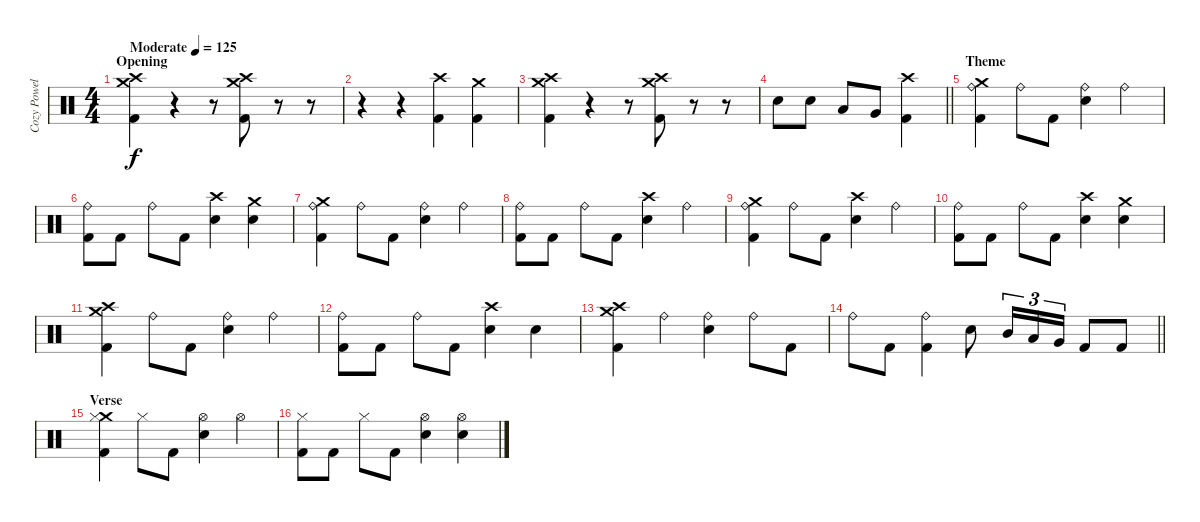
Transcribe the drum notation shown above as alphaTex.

\track ("Cozy Powell " "Cozy Powel") {instrument percussion}
\staff {score}
\articulation defaults
\ts (4 4)
\section ("" "Opening")
\tempo (125 "Moderate")
\clef neutral
\ks c
("Crash high (hit)" "Crash medium (hit)" "Kick (hit) 2").4{dy f} r.4 r.8 ("Crash medium (hit)" "Crash high (hit)" "Kick (hit) 2").8 r.8 r.8 |
r.4 r.4 ("Crash high (hit)" "Kick (hit) 2").4 ("Crash medium (hit)" "Kick (hit) 2").4 |
("Crash high (hit)" "Crash medium (hit)" "Kick (hit) 2").4 r.4 r.8 ("Crash medium (hit)" "Crash high (hit)" "Kick (hit) 2").8 r.8 r.8 |
\barLineRight lightlight "Snare (hit) 2".8 "Snare (hit) 2".8 "Low Tom (hit)".8 "Very Low Tom (hit)".8
("Crash high (hit)" "Kick (hit) 2").4 |
\section ("" "Theme")
("Crash medium (hit)" "Ride (bell)" "Kick (hit) 2").4 "Ride (bell)".8 "Kick (hit) 2".8 ("Ride (bell)" "Snare (hit) 2").4 "Ride (bell)".4 |
("Ride (bell)" "Kick (hit) 2").8 "Kick (hit) 2".8 "Ride (bell)".8 "Kick (hit) 2".8 ("Crash high (hit)" "Snare (hit) 2").4 ("Crash medium (hit)" "Snare (hit) 2").4 |
("Crash medium (hit)" "Ride (bell)" "Kick (hit) 2").4 "Ride (bell)".8 "Kick (hit) 2".8 ("Ride (bell)" "Snare (hit) 2").4 "Ride (bell)".4 |
("Ride (bell)" "Kick (hit) 2").8 "Kick (hit) 2".8 "Ride (bell)".8 "Kick (hit) 2".8 ("Crash high (hit)" "Snare (hit) 2").4 "Ride (bell)".4 |
("Crash medium (hit)" "Ride (bell)" "Kick (hit) 2").4 "Ride (bell)".8 "Kick (hit) 2".8 ("Crash high (hit)" "Snare (hit) 2").4 "Ride (bell)".4 |
("Ride (bell)" "Kick (hit) 2").8 "Kick (hit) 2".8 "Ride (bell)".8 "Kick (hit) 2".8 ("Crash high (hit)" "Snare (hit) 2").4 ("Crash medium (hit)" "Snare (hit) 2").4 |
("Crash medium (hit)" "Crash high (hit)" "Kick (hit) 2").4 "Ride (bell)".8 "Kick (hit) 2".8 ("Ride (bell)" "Snare (hit) 2").4 "Ride (bell)".4 |
("Ride (bell)" "Kick (hit) 2").8 "Kick (hit) 2".8 "Ride (bell)".8 "Kick (hit) 2".8 ("Crash high (hit)" "Snare (hit) 2").4 "Snare (hit) 2".4 |
("Crash medium (hit)" "Crash high (hit)" "Kick (hit) 2").4 "Ride (bell)".4 ("Ride (bell)" "Snare (hit) 2").4 "Ride (bell)".8 "Kick (hit) 2".8 |
\barLineRight lightlight "Ride (bell)".8 "Kick (hit) 2".8
("Ride (bell)" "Kick (hit) 2").4 "Snare (hit) 2".8 "Mid Tom (hit)".16{tu (3 2)} "Low Tom (hit)".16{tu (3 2)} "Very Low Tom (hit)".16{tu (3 2)} "Kick (hit) 2".8 "Kick (hit) 2".8 |
\section ("" "Verse")
("Crash medium (hit)" "Hi-Hat (closed)" "Kick (hit) 2").4 "Hi-Hat (closed)".8 "Kick (hit) 2".8 ("Hi-Hat (open)" "Snare (hit) 2").4 "Hi-Hat (open)".4 |
("Hi-Hat (closed)" "Kick (hit) 2").8 "Kick (hit) 2".8 "Hi-Hat (closed)".8 "Kick (hit) 2".8 ("Hi-Hat (open)" "Snare (hit) 2").4 ("Hi-Hat (open)" "Snare (hit) 2").4
